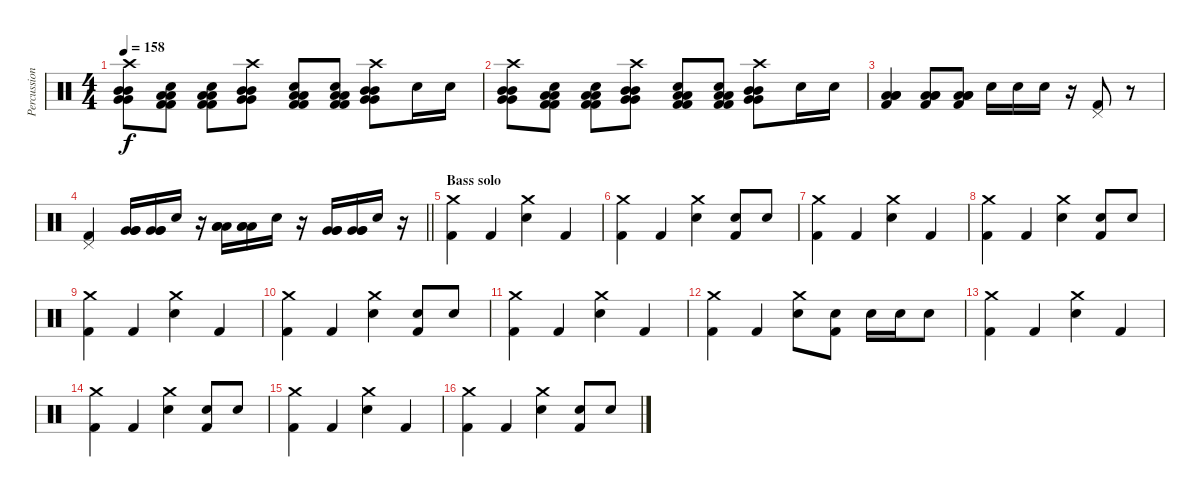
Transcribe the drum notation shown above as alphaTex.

\track ("Percussion" "Percussion") {instrument percussion}
\staff {score}
\articulation defaults
\ts (4 4)
\tempo 158
\clef neutral
\ks c
("Crash high (hit)" "Very Low Tom (hit)" "Very Low Tom (hit)" "Mid Tom (hit)" "Mid Tom (hit)").8{dy f} ("Kick (hit) 2" "Low Floor Tom (hit)" "Low Floor Tom (hit)" "Electric Snare (hit)" "Kick (hit) 2").8 ("Kick (hit) 2" "Low Floor Tom (hit)" "Low Floor Tom (hit)" "Electric Snare (hit)" "Kick (hit) 2").8 ("Crash high (hit)" "Very Low Tom (hit)" "Very Low Tom (hit)" "Mid Tom (hit)" "Mid Tom (hit)").8 ("Kick (hit) 2" "Low Floor Tom (hit)" "Low Floor Tom (hit)" "Electric Snare (hit)" "Kick (hit) 2").8 ("Kick (hit) 2" "Low Floor Tom (hit)" "Low Floor Tom (hit)" "Electric Snare (hit)" "Kick (hit) 2").8 ("Crash high (hit)" "Very Low Tom (hit)" "Very Low Tom (hit)" "Mid Tom (hit)" "Mid Tom (hit)").8 "Electric Snare (hit)".16 "Electric Snare (hit)".16 |
("Crash high (hit)" "Very Low Tom (hit)" "Very Low Tom (hit)" "Mid Tom (hit)" "Mid Tom (hit)").8 ("Kick (hit) 2" "Low Floor Tom (hit)" "Low Floor Tom (hit)" "Electric Snare (hit)" "Kick (hit) 2").8 ("Kick (hit) 2" "Low Floor Tom (hit)" "Low Floor Tom (hit)" "Electric Snare (hit)" "Kick (hit) 2").8 ("Crash high (hit)" "Very Low Tom (hit)" "Very Low Tom (hit)" "Mid Tom (hit)" "Mid Tom (hit)").8 ("Kick (hit) 2" "Low Floor Tom (hit)" "Low Floor Tom (hit)" "Electric Snare (hit)" "Kick (hit) 2").8 ("Kick (hit) 2" "Low Floor Tom (hit)" "Low Floor Tom (hit)" "Electric Snare (hit)" "Kick (hit) 2").8 ("Crash high (hit)" "Very Low Tom (hit)" "Very Low Tom (hit)" "Mid Tom (hit)" "Mid Tom (hit)").8 "Electric Snare (hit)".16 "Electric Snare (hit)".16 |
("Low Floor Tom (hit)" "Low Floor Tom (hit)" "Low Floor Tom (hit)" "Kick (hit) 2").4 ("Low Floor Tom (hit)" "Low Floor Tom (hit)" "Low Floor Tom (hit)" "Kick (hit) 2").8 ("Low Floor Tom (hit)" "Low Floor Tom (hit)" "Low Floor Tom (hit)" "Kick (hit) 2").8 "Electric Snare (hit)".16 "Electric Snare (hit)".16 "Electric Snare (hit)".16 r.16 ("Pedal Hi-Hat (hit)" "Kick (hit) 2").8 r.8 |
\barLineRight lightlight
("Pedal Hi-Hat (hit)" "Kick (hit) 2").4 ("Very Low Tom (hit)" "Very Low Tom (hit)" "Very Low Tom (hit)").16 ("Very Low Tom (hit)" "Very Low Tom (hit)" "Very Low Tom (hit)").16 "Electric Snare (hit)".16 r.16 ("Low Tom (hit)" "Low Tom (hit)" "Low Tom (hit)").16 ("Low Tom (hit)" "Low Tom (hit)" "Low Tom (hit)").16 "Electric Snare (hit)".16 r.16 ("Very Low Tom (hit)" "Very Low Tom (hit)" "Very Low Tom (hit)").16 ("Very Low Tom (hit)" "Very Low Tom (hit)" "Very Low Tom (hit)").16 "Electric Snare (hit)".16 r.16 |
\section ("" "Bass solo")
("Crash medium (hit)" "Kick (hit) 2").4 "Kick (hit) 2".4 ("Crash medium (hit)" "Electric Snare (hit)").4 "Kick (hit) 2".4 |
("Crash medium (hit)" "Kick (hit) 2").4 "Kick (hit) 2".4 ("Crash medium (hit)" "Electric Snare (hit)").4 ("Electric Snare (hit)" "Kick (hit) 2").8 "Electric Snare (hit)".8 |
("Crash medium (hit)" "Kick (hit) 2").4 "Kick (hit) 2".4 ("Crash medium (hit)" "Electric Snare (hit)").4 "Kick (hit) 2".4 |
("Crash medium (hit)" "Kick (hit) 2").4 "Kick (hit) 2".4 ("Crash medium (hit)" "Electric Snare (hit)").4 ("Electric Snare (hit)" "Kick (hit) 2").8 "Electric Snare (hit)".8 |
("Crash medium (hit)" "Kick (hit) 2").4 "Kick (hit) 2".4 ("Crash medium (hit)" "Electric Snare (hit)").4 "Kick (hit) 2".4 |
("Crash medium (hit)" "Kick (hit) 2").4 "Kick (hit) 2".4 ("Crash medium (hit)" "Electric Snare (hit)").4 ("Electric Snare (hit)" "Kick (hit) 2").8 "Electric Snare (hit)".8 |
("Crash medium (hit)" "Kick (hit) 2").4 "Kick (hit) 2".4 ("Crash medium (hit)" "Electric Snare (hit)").4 "Kick (hit) 2".4 |
("Crash medium (hit)" "Kick (hit) 2").4 "Kick (hit) 2".4 ("Crash medium (hit)" "Electric Snare (hit)").8 ("Electric Snare (hit)" "Kick (hit) 2").8 "Electric Snare (hit)".16 "Electric Snare (hit)".16 "Electric Snare (hit)".8 |
("Crash medium (hit)" "Kick (hit) 2").4 "Kick (hit) 2".4 ("Crash medium (hit)" "Electric Snare (hit)").4 "Kick (hit) 2".4 |
("Crash medium (hit)" "Kick (hit) 2").4 "Kick (hit) 2".4 ("Crash medium (hit)" "Electric Snare (hit)").4 ("Electric Snare (hit)" "Kick (hit) 2").8 "Electric Snare (hit)".8 |
("Crash medium (hit)" "Kick (hit) 2").4 "Kick (hit) 2".4 ("Crash medium (hit)" "Electric Snare (hit)").4 "Kick (hit) 2".4 |
("Crash medium (hit)" "Kick (hit) 2").4 "Kick (hit) 2".4 ("Crash medium (hit)" "Electric Snare (hit)").4 ("Electric Snare (hit)" "Kick (hit) 2").8 "Electric Snare (hit)".8
